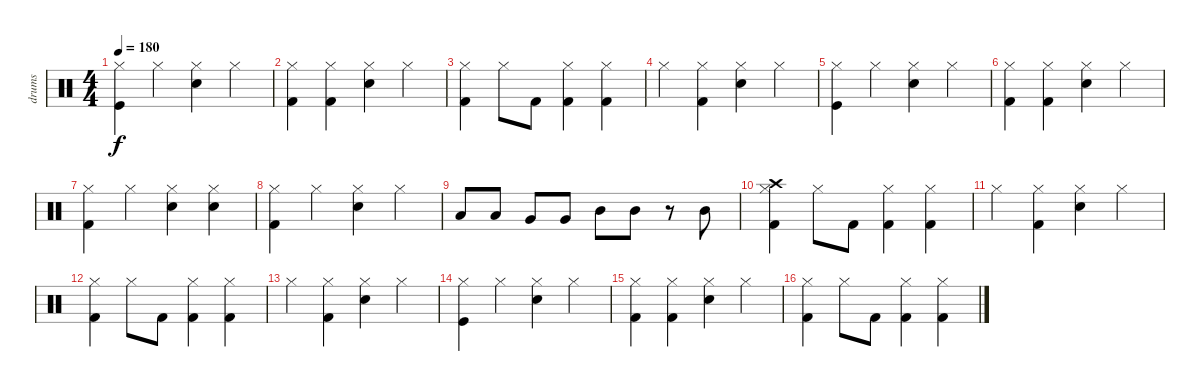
\track ("drums" "drums") {instrument percussion}
\staff {score}
\articulation defaults
\ts (4 4)
\tempo 180
\clef neutral
\ks c
("Kick (hit)" "Hi-Hat (closed)").4{dy f} "Hi-Hat (closed)".4 ("Hi-Hat (closed)" "Snare (hit) 2").4 "Hi-Hat (closed)".4 |
("Hi-Hat (closed)" "Kick (hit) 2").4 ("Hi-Hat (closed)" "Kick (hit) 2").4 ("Hi-Hat (closed)" "Snare (hit) 2").4 "Hi-Hat (closed)".4 |
("Hi-Hat (closed)" "Kick (hit) 2").4 "Hi-Hat (closed)".8 "Kick (hit) 2".8 ("Hi-Hat (closed)" "Kick (hit) 2").4 ("Hi-Hat (closed)" "Kick (hit) 2").4 |
"Hi-Hat (closed)".4 ("Hi-Hat (closed)" "Kick (hit) 2").4 ("Hi-Hat (closed)" "Snare (hit) 2").4 "Hi-Hat (closed)".4 |
("Kick (hit)" "Hi-Hat (closed)").4 "Hi-Hat (closed)".4 ("Hi-Hat (closed)" "Snare (hit) 2").4 "Hi-Hat (closed)".4 |
("Hi-Hat (closed)" "Kick (hit) 2").4 ("Hi-Hat (closed)" "Kick (hit) 2").4 ("Hi-Hat (closed)" "Snare (hit) 2").4 "Hi-Hat (closed)".4 |
("Hi-Hat (closed)" "Kick (hit) 2").4 "Hi-Hat (closed)".4 ("Hi-Hat (closed)" "Snare (hit) 2").4 ("Hi-Hat (closed)" "Snare (hit) 2").4 |
("Hi-Hat (closed)" "Kick (hit) 2").4 "Hi-Hat (closed)".4 ("Hi-Hat (closed)" "Snare (hit) 2").4 "Hi-Hat (closed)".4 |
"Low Tom (hit)".8 "Low Tom (hit)".8 "Very Low Tom (hit)".8 "Very Low Tom (hit)".8 "Mid Tom (hit)".8 "Mid Tom (hit)".8 r.8 "Mid Tom (hit)".8 |
("Hi-Hat (closed)" "Kick (hit) 2" "Crash high (hit)").4 "Hi-Hat (closed)".8 "Kick (hit) 2".8 ("Hi-Hat (closed)" "Kick (hit) 2").4 ("Hi-Hat (closed)" "Kick (hit) 2").4 |
"Hi-Hat (closed)".4 ("Hi-Hat (closed)" "Kick (hit) 2").4 ("Hi-Hat (closed)" "Snare (hit) 2").4 "Hi-Hat (closed)".4 |
("Hi-Hat (closed)" "Kick (hit) 2").4 "Hi-Hat (closed)".8 "Kick (hit) 2".8 ("Hi-Hat (closed)" "Kick (hit) 2").4 ("Hi-Hat (closed)" "Kick (hit) 2").4 |
"Hi-Hat (closed)".4 ("Hi-Hat (closed)" "Kick (hit) 2").4 ("Hi-Hat (closed)" "Snare (hit) 2").4 "Hi-Hat (closed)".4 |
("Kick (hit)" "Hi-Hat (closed)").4 "Hi-Hat (closed)".4 ("Hi-Hat (closed)" "Snare (hit) 2").4 "Hi-Hat (closed)".4 |
("Hi-Hat (closed)" "Kick (hit) 2").4 ("Hi-Hat (closed)" "Kick (hit) 2").4 ("Hi-Hat (closed)" "Snare (hit) 2").4 "Hi-Hat (closed)".4 |
("Hi-Hat (closed)" "Kick (hit) 2").4 "Hi-Hat (closed)".8 "Kick (hit) 2".8 ("Hi-Hat (closed)" "Kick (hit) 2").4 ("Hi-Hat (closed)" "Kick (hit) 2").4
